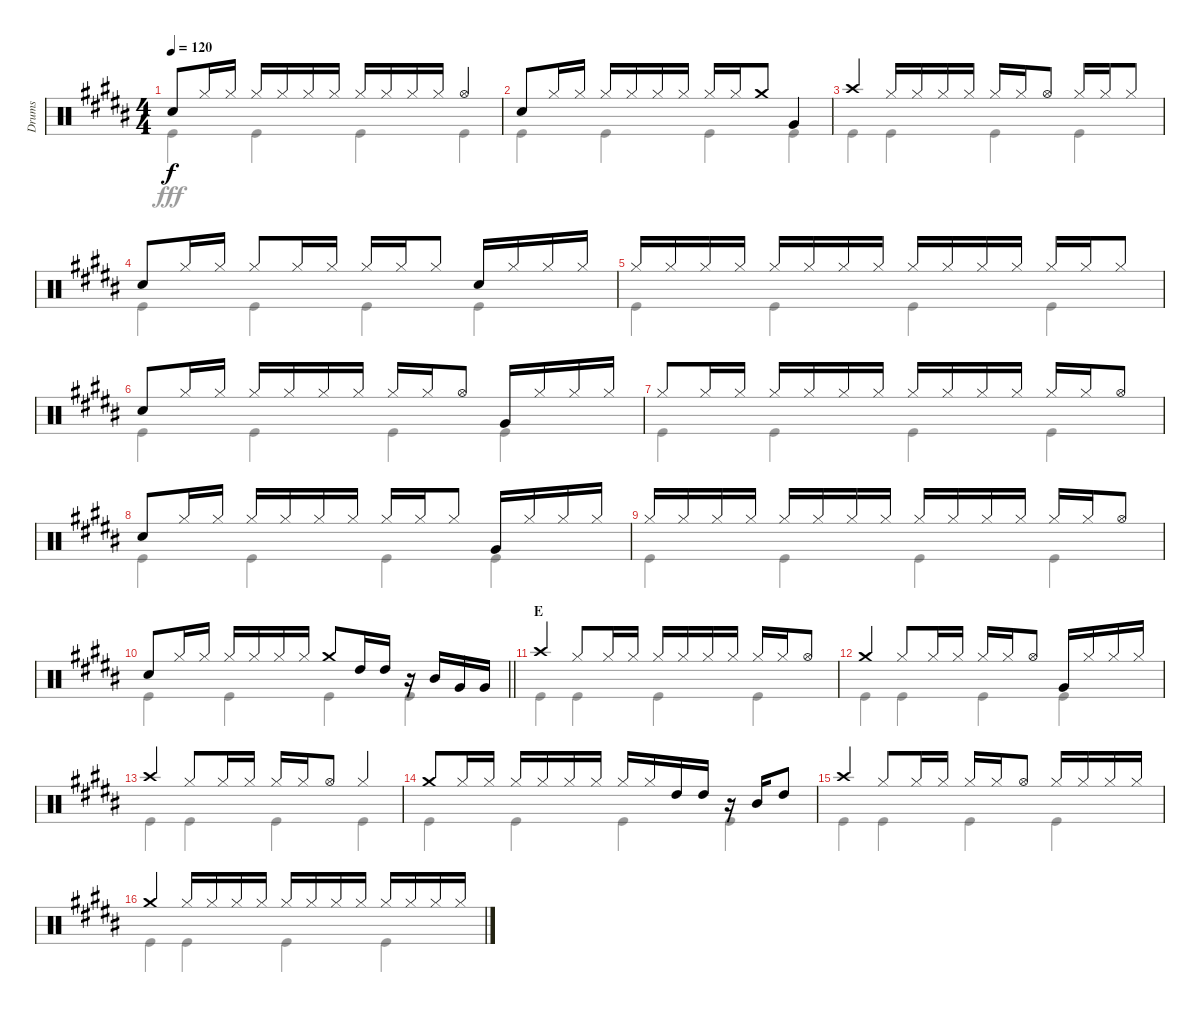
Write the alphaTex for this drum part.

\track ("Drums" "Drums") {instrument percussion}
\staff {score}
\articulation defaults
\voice
\ts (4 4)
\tempo 120
\clef neutral
\ks b "Snare (hit) 2".8{dy f} "Hi-Hat (closed)".16 "Hi-Hat (closed)".16 "Hi-Hat (closed)".16 "Hi-Hat (closed)".16 "Hi-Hat (closed)".16 "Hi-Hat (closed)".16 "Hi-Hat (closed)".16 "Hi-Hat (closed)".16 "Hi-Hat (closed)".16 "Hi-Hat (closed)".16 "Hi-Hat (open)".4
|
"Snare (hit) 2".8 "Hi-Hat (closed)".16 "Hi-Hat (closed)".16 "Hi-Hat (closed)".16 "Hi-Hat (closed)".16 "Hi-Hat (closed)".16 "Hi-Hat (closed)".16 "Hi-Hat (closed)".16 "Hi-Hat (closed)".16 "Crash medium (hit)".8 "Very Low Tom (hit)".4 |
"Crash high (hit)".4 "Hi-Hat (closed)".16 "Hi-Hat (closed)".16 "Hi-Hat (closed)".16 "Hi-Hat (closed)".16 "Hi-Hat (closed)".16 "Hi-Hat (closed)".16 "Hi-Hat (open)".8 "Hi-Hat (closed)".16 "Hi-Hat (closed)".16 "Hi-Hat (closed)".8 |
"Snare (hit) 2".8 "Hi-Hat (closed)".16 "Hi-Hat (closed)".16 "Hi-Hat (closed)".8 "Hi-Hat (closed)".16 "Hi-Hat (closed)".16 "Hi-Hat (closed)".16 "Hi-Hat (closed)".16 "Hi-Hat (closed)".8 "Snare (hit) 2".16 "Hi-Hat (closed)".16 "Hi-Hat (closed)".16 "Hi-Hat (closed)".16 |
"Hi-Hat (closed)".16 "Hi-Hat (closed)".16 "Hi-Hat (closed)".16 "Hi-Hat (closed)".16 "Hi-Hat (closed)".16 "Hi-Hat (closed)".16 "Hi-Hat (closed)".16 "Hi-Hat (closed)".16 "Hi-Hat (closed)".16 "Hi-Hat (closed)".16 "Hi-Hat (closed)".16 "Hi-Hat (closed)".16 "Hi-Hat (closed)".16 "Hi-Hat (closed)".16 "Hi-Hat (closed)".8 |
"Snare (hit) 2".8 "Hi-Hat (closed)".16 "Hi-Hat (closed)".16 "Hi-Hat (closed)".16 "Hi-Hat (closed)".16 "Hi-Hat (closed)".16 "Hi-Hat (closed)".16 "Hi-Hat (closed)".16 "Hi-Hat (closed)".16 "Hi-Hat (open)".8 "Very Low Tom (hit)".16 "Hi-Hat (closed)".16 "Hi-Hat (closed)".16 "Hi-Hat (closed)".16 |
"Hi-Hat (closed)".8 "Hi-Hat (closed)".16 "Hi-Hat (closed)".16 "Hi-Hat (closed)".16 "Hi-Hat (closed)".16 "Hi-Hat (closed)".16 "Hi-Hat (closed)".16 "Hi-Hat (closed)".16 "Hi-Hat (closed)".16 "Hi-Hat (closed)".16 "Hi-Hat (closed)".16 "Hi-Hat (closed)".16 "Hi-Hat (closed)".16 "Hi-Hat (open)".8 |
"Snare (hit) 2".8 "Hi-Hat (closed)".16 "Hi-Hat (closed)".16 "Hi-Hat (closed)".16 "Hi-Hat (closed)".16 "Hi-Hat (closed)".16 "Hi-Hat (closed)".16 "Hi-Hat (closed)".16 "Hi-Hat (closed)".16 "Hi-Hat (closed)".8 "Very Low Tom (hit)".16 "Hi-Hat (closed)".16 "Hi-Hat (closed)".16 "Hi-Hat (closed)".16 |
"Hi-Hat (closed)".16 "Hi-Hat (closed)".16 "Hi-Hat (closed)".16 "Hi-Hat (closed)".16 "Hi-Hat (closed)".16 "Hi-Hat (closed)".16 "Hi-Hat (closed)".16 "Hi-Hat (closed)".16 "Hi-Hat (closed)".16 "Hi-Hat (closed)".16 "Hi-Hat (closed)".16 "Hi-Hat (closed)".16 "Hi-Hat (closed)".16 "Hi-Hat (closed)".16 "Hi-Hat (open)".8 |
\barLineRight lightlight "Snare (hit) 2".8 "Hi-Hat (closed)".16 "Hi-Hat (closed)".16 "Hi-Hat (closed)".16 "Hi-Hat (closed)".16 "Hi-Hat (closed)".16 "Hi-Hat (closed)".16 "Crash medium (hit)".8 "High Tom (hit)".16 "High Tom (hit)".16
r.16 "Mid Tom (hit)".16 "Very Low Tom (hit)".16 "Very Low Tom (hit)".16 |
\section ("" "E")
"Crash high (hit)".4 "Hi-Hat (closed)".8 "Hi-Hat (closed)".16 "Hi-Hat (closed)".16 "Hi-Hat (closed)".16 "Hi-Hat (closed)".16 "Hi-Hat (closed)".16 "Hi-Hat (closed)".16 "Hi-Hat (closed)".16 "Hi-Hat (closed)".16 "Hi-Hat (open)".8 |
"Crash medium (hit)".4 "Hi-Hat (closed)".8 "Hi-Hat (closed)".16 "Hi-Hat (closed)".16 "Hi-Hat (closed)".16 "Hi-Hat (closed)".16 "Hi-Hat (open)".8 "Very Low Tom (hit)".16 "Hi-Hat (closed)".16 "Hi-Hat (closed)".16 "Hi-Hat (closed)".16 |
"Crash high (hit)".4 "Hi-Hat (closed)".8 "Hi-Hat (closed)".16 "Hi-Hat (closed)".16 "Hi-Hat (closed)".16 "Hi-Hat (closed)".16 "Hi-Hat (open)".8 "Hi-Hat (closed)".4 |
"Crash medium (hit)".8 "Hi-Hat (closed)".16 "Hi-Hat (closed)".16 "Hi-Hat (closed)".16 "Hi-Hat (closed)".16 "Hi-Hat (closed)".16 "Hi-Hat (closed)".16 "Hi-Hat (closed)".16 "Hi-Hat (closed)".16 "High Tom (hit)".16 "High Tom (hit)".16 r.16 "Mid Tom (hit)".16 "High Tom (hit)".8 |
"Crash high (hit)".4 "Hi-Hat (closed)".8 "Hi-Hat (closed)".16 "Hi-Hat (closed)".16 "Hi-Hat (closed)".16 "Hi-Hat (closed)".16 "Hi-Hat (open)".8 "Hi-Hat (closed)".16 "Hi-Hat (closed)".16 "Hi-Hat (closed)".16 "Hi-Hat (closed)".16 |
"Crash medium (hit)".4 "Hi-Hat (closed)".16 "Hi-Hat (closed)".16 "Hi-Hat (closed)".16 "Hi-Hat (closed)".16 "Hi-Hat (closed)".16 "Hi-Hat (closed)".16 "Hi-Hat (closed)".16 "Hi-Hat (closed)".16 "Hi-Hat (closed)".16 "Hi-Hat (closed)".16 "Hi-Hat (closed)".16 "Hi-Hat (closed)".16
\voice
\clef neutral
\ottava regular
\simile none
\ks b "Kick (hit)".4{dy fff} "Kick (hit)".4 "Kick (hit)".4 "Kick (hit)".4
|
"Kick (hit)".4 "Kick (hit)".4 "Kick (hit)".4 "Kick (hit)".4 |
"Kick (hit)".4 "Kick (hit)".4 "Kick (hit)".4 "Kick (hit)".4 |
"Kick (hit)".4 "Kick (hit)".4 "Kick (hit)".4 "Kick (hit)".4 |
"Kick (hit)".4 "Kick (hit)".4 "Kick (hit)".4 "Kick (hit)".4 |
"Kick (hit)".4 "Kick (hit)".4 "Kick (hit)".4 "Kick (hit)".4 |
"Kick (hit)".4 "Kick (hit)".4 "Kick (hit)".4 "Kick (hit)".4 |
"Kick (hit)".4 "Kick (hit)".4 "Kick (hit)".4 "Kick (hit)".4 |
"Kick (hit)".4 "Kick (hit)".4 "Kick (hit)".4 "Kick (hit)".4 |
\barLineRight lightlight "Kick (hit)".4 "Kick (hit)".4 "Kick (hit)".4 "Kick (hit)".4
|
"Kick (hit)".4 "Kick (hit)".4 "Kick (hit)".4 "Kick (hit)".4 |
"Kick (hit)".4 "Kick (hit)".4 "Kick (hit)".4 "Kick (hit)".4 |
"Kick (hit)".4 "Kick (hit)".4 "Kick (hit)".4 "Kick (hit)".4 |
"Kick (hit)".4 "Kick (hit)".4 "Kick (hit)".4 "Kick (hit)".4 |
"Kick (hit)".4 "Kick (hit)".4 "Kick (hit)".4 "Kick (hit)".4 |
"Kick (hit)".4 "Kick (hit)".4 "Kick (hit)".4 "Kick (hit)".4
